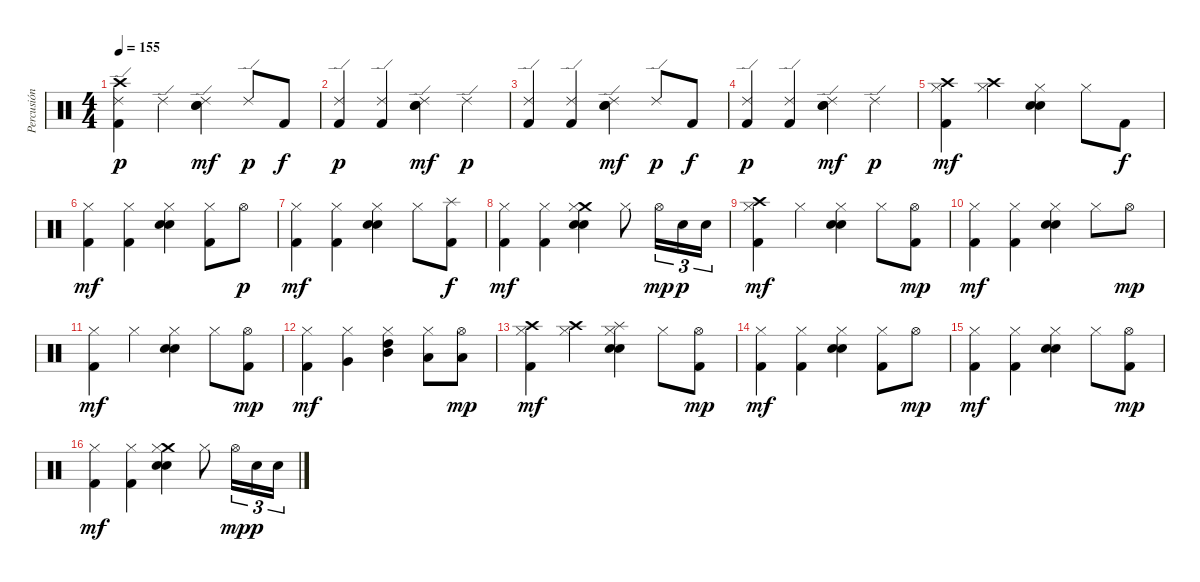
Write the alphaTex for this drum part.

\track ("Percusión" "Percusión") {instrument percussion}
\staff {score}
\articulation defaults
\ts (4 4)
\tempo 155
\clef neutral
\ks c
("Crash high (hit)" "Ride (edge) 2" "Kick (hit) 2").4{dy p} "Ride (edge) 2".4 ("Ride (edge) 2" "Electric Snare (hit)" "Hand Clap (hit)").4{dy mf} "Ride (edge) 2".8{dy p} "Kick (hit) 2".8{dy f} |
("Ride (edge) 2" "Kick (hit) 2").4{dy p} ("Ride (edge) 2" "Kick (hit) 2").4 ("Ride (edge) 2" "Electric Snare (hit)" "Hand Clap (hit)").4{dy mf} "Ride (edge) 2".4{dy p} |
("Ride (edge) 2" "Kick (hit) 2").4 ("Ride (edge) 2" "Kick (hit) 2").4 ("Ride (edge) 2" "Electric Snare (hit)" "Hand Clap (hit)").4{dy mf} "Ride (edge) 2".8{dy p} "Kick (hit) 2".8{dy f} |
("Ride (edge) 2" "Kick (hit) 2").4{dy p} ("Ride (edge) 2" "Kick (hit) 2").4 ("Ride (edge) 2" "Electric Snare (hit)" "Hand Clap (hit)").4{dy mf} "Ride (edge) 2".4{dy p} |
("Crash high (hit)" "Hi-Hat (closed)" "Kick (hit) 2").4{dy mf} ("Crash high (hit)" "Hi-Hat (closed)").4 ("Hi-Hat (closed)" "Electric Snare (hit)" "Hand Clap (hit)").4 "Hi-Hat (closed)".8 "Kick (hit) 2".8{dy f} |
("Hi-Hat (closed)" "Kick (hit) 2").4{dy mf} ("Hi-Hat (closed)" "Kick (hit) 2").4 ("Hi-Hat (closed)" "Electric Snare (hit)" "Hand Clap (hit)").4 ("Hi-Hat (closed)" "Kick (hit) 2").8 "Hi-Hat (open)".8{dy p} |
("Hi-Hat (closed)" "Kick (hit) 2").4{dy mf} ("Hi-Hat (closed)" "Kick (hit) 2").4 ("Hi-Hat (closed)" "Electric Snare (hit)" "Hand Clap (hit)").4 "Hi-Hat (closed)".8 ("Splash (hit)" "Kick (hit) 2").8{dy f} |
("Hi-Hat (closed)" "Kick (hit) 2").4{dy mf} ("Hi-Hat (closed)" "Kick (hit) 2").4 ("Crash medium (hit)" "Hi-Hat (closed)" "Electric Snare (hit)" "Hand Clap (hit)").4 "Hi-Hat (closed)".8 "Hi-Hat (open)".16{tu (3 2) dy mp} "Snare (hit) 2".16{tu (3 2) dy p} "Snare (hit) 2".16{tu (3 2)} |
("Crash high (hit)" "Hi-Hat (closed)" "Kick (hit) 2").4{dy mf} "Hi-Hat (closed)".4 ("Hi-Hat (closed)" "Electric Snare (hit)" "Hand Clap (hit)").4 "Hi-Hat (closed)".8 ("Hi-Hat (open)" "Kick (hit) 2").8{dy mp} |
("Hi-Hat (closed)" "Kick (hit) 2").4{dy mf} ("Hi-Hat (closed)" "Kick (hit) 2").4 ("Hi-Hat (closed)" "Electric Snare (hit)" "Hand Clap (hit)").4 "Hi-Hat (closed)".8 "Hi-Hat (open)".8{dy mp} |
("Hi-Hat (closed)" "Kick (hit) 2").4{dy mf} "Hi-Hat (closed)".4 ("Hi-Hat (closed)" "Electric Snare (hit)" "Hand Clap (hit)").4 "Hi-Hat (closed)".8 ("Hi-Hat (open)" "Kick (hit) 2").8{dy mp} |
("Hi-Hat (closed)" "Kick (hit) 2").4{dy mf} ("Hi-Hat (closed)" "Very Low Tom (hit)").4 ("Hi-Hat (closed)" "High Tom (hit)" "Mid Tom (hit)").4 ("Hi-Hat (closed)" "Low Floor Tom (hit)").8 ("Hi-Hat (open)" "Low Floor Tom (hit)").8{dy mp} |
("Crash high (hit)" "Hi-Hat (closed)" "Kick (hit) 2").4{dy mf} ("Crash high (hit)" "Hi-Hat (closed)").4 ("Splash (hit)" "Hi-Hat (closed)" "Electric Snare (hit)" "Hand Clap (hit)").4 "Hi-Hat (closed)".8 ("Hi-Hat (open)" "Kick (hit) 2").8{dy mp} |
("Hi-Hat (closed)" "Kick (hit) 2").4{dy mf} ("Hi-Hat (closed)" "Kick (hit) 2").4 ("Hi-Hat (closed)" "Electric Snare (hit)" "Hand Clap (hit)").4 ("Hi-Hat (closed)" "Kick (hit) 2").8 "Hi-Hat (open)".8{dy mp} |
("Hi-Hat (closed)" "Kick (hit) 2").4{dy mf} ("Hi-Hat (closed)" "Kick (hit) 2").4 ("Hi-Hat (closed)" "Electric Snare (hit)" "Hand Clap (hit)").4 "Hi-Hat (closed)".8 ("Hi-Hat (open)" "Kick (hit) 2").8{dy mp} |
("Hi-Hat (closed)" "Kick (hit) 2").4{dy mf} ("Hi-Hat (closed)" "Kick (hit) 2").4 ("Crash medium (hit)" "Hi-Hat (closed)" "Electric Snare (hit)" "Hand Clap (hit)").4 "Hi-Hat (closed)".8 "Hi-Hat (open)".16{tu (3 2) dy mp} "Snare (hit) 2".16{tu (3 2) dy p} "Snare (hit) 2".16{tu (3 2)}
